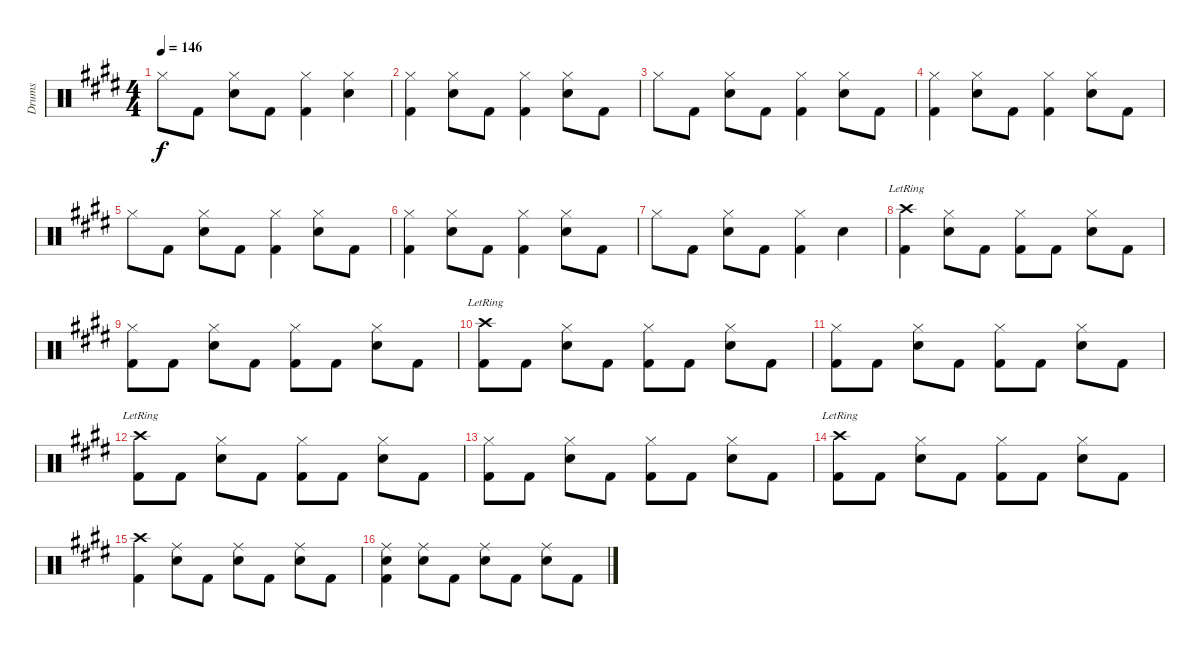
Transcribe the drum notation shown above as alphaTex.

\track ("Drums" "Drums") {instrument percussion}
\staff {score}
\articulation defaults
\ts (4 4)
\tempo 146
\clef neutral
\ks e "Hi-Hat (closed)".8{dy f} "Kick (hit) 2".8
("Snare (hit) 2" "Hi-Hat (closed)").8 "Kick (hit) 2".8 ("Kick (hit) 2" "Hi-Hat (closed)").4 ("Snare (hit) 2" "Hi-Hat (closed)").4 |
("Kick (hit) 2" "Hi-Hat (closed)").4 ("Snare (hit) 2" "Hi-Hat (closed)").8 "Kick (hit) 2".8 ("Kick (hit) 2" "Hi-Hat (closed)").4 ("Snare (hit) 2" "Hi-Hat (closed)").8 "Kick (hit) 2".8 |
"Hi-Hat (closed)".8 "Kick (hit) 2".8 ("Snare (hit) 2" "Hi-Hat (closed)").8 "Kick (hit) 2".8 ("Kick (hit) 2" "Hi-Hat (closed)").4 ("Snare (hit) 2" "Hi-Hat (closed)").8 "Kick (hit) 2".8 |
("Kick (hit) 2" "Hi-Hat (closed)").4 ("Snare (hit) 2" "Hi-Hat (closed)").8 "Kick (hit) 2".8 ("Kick (hit) 2" "Hi-Hat (closed)").4 ("Snare (hit) 2" "Hi-Hat (closed)").8 "Kick (hit) 2".8 |
"Hi-Hat (closed)".8 "Kick (hit) 2".8 ("Snare (hit) 2" "Hi-Hat (closed)").8 "Kick (hit) 2".8 ("Kick (hit) 2" "Hi-Hat (closed)").4 ("Snare (hit) 2" "Hi-Hat (closed)").8 "Kick (hit) 2".8 |
("Kick (hit) 2" "Hi-Hat (closed)").4 ("Snare (hit) 2" "Hi-Hat (closed)").8 "Kick (hit) 2".8 ("Kick (hit) 2" "Hi-Hat (closed)").4 ("Snare (hit) 2" "Hi-Hat (closed)").8 "Kick (hit) 2".8 |
"Hi-Hat (closed)".8 "Kick (hit) 2".8 ("Snare (hit) 2" "Hi-Hat (closed)").8 "Kick (hit) 2".8 ("Kick (hit) 2" "Hi-Hat (closed)").4 "Snare (hit) 2".4 |
("Kick (hit) 2" "Crash high (hit)"{lr}).4 ("Snare (hit) 2" "Hi-Hat (closed)").8 "Kick (hit) 2".8 ("Kick (hit) 2" "Hi-Hat (closed)").8 "Kick (hit) 2".8 ("Snare (hit) 2" "Hi-Hat (closed)").8 "Kick (hit) 2".8 |
("Kick (hit) 2" "Hi-Hat (closed)").8 "Kick (hit) 2".8 ("Snare (hit) 2" "Hi-Hat (closed)").8 "Kick (hit) 2".8 ("Kick (hit) 2" "Hi-Hat (closed)").8 "Kick (hit) 2".8 ("Snare (hit) 2" "Hi-Hat (closed)").8 "Kick (hit) 2".8 |
("Kick (hit) 2" "Crash high (hit)"{lr}).8 "Kick (hit) 2".8 ("Snare (hit) 2" "Hi-Hat (closed)").8 "Kick (hit) 2".8 ("Kick (hit) 2" "Hi-Hat (closed)").8 "Kick (hit) 2".8 ("Snare (hit) 2" "Hi-Hat (closed)").8 "Kick (hit) 2".8 |
("Kick (hit) 2" "Hi-Hat (closed)").8 "Kick (hit) 2".8 ("Snare (hit) 2" "Hi-Hat (closed)").8 "Kick (hit) 2".8 ("Kick (hit) 2" "Hi-Hat (closed)").8 "Kick (hit) 2".8 ("Snare (hit) 2" "Hi-Hat (closed)").8 "Kick (hit) 2".8 |
("Kick (hit) 2" "Crash high (hit)"{lr}).8 "Kick (hit) 2".8 ("Snare (hit) 2" "Hi-Hat (closed)").8 "Kick (hit) 2".8 ("Kick (hit) 2" "Hi-Hat (closed)").8 "Kick (hit) 2".8 ("Snare (hit) 2" "Hi-Hat (closed)").8 "Kick (hit) 2".8 |
("Kick (hit) 2" "Hi-Hat (closed)").8 "Kick (hit) 2".8 ("Snare (hit) 2" "Hi-Hat (closed)").8 "Kick (hit) 2".8 ("Kick (hit) 2" "Hi-Hat (closed)").8 "Kick (hit) 2".8 ("Snare (hit) 2" "Hi-Hat (closed)").8 "Kick (hit) 2".8 |
("Kick (hit) 2" "Crash high (hit)"{lr}).8 "Kick (hit) 2".8 ("Snare (hit) 2" "Hi-Hat (closed)").8 "Kick (hit) 2".8 ("Kick (hit) 2" "Hi-Hat (closed)").8 "Kick (hit) 2".8 ("Snare (hit) 2" "Hi-Hat (closed)").8 "Kick (hit) 2".8 |
("Kick (hit) 2" "Crash high (hit)").4 ("Snare (hit) 2" "Ride (middle)").8 "Kick (hit) 2".8 ("Snare (hit) 2" "Ride (middle)").8 "Kick (hit) 2".8 ("Snare (hit) 2" "Ride (middle)").8 "Kick (hit) 2".8 |
("Kick (hit) 2" "Snare (hit) 2" "Ride (middle)").4 ("Snare (hit) 2" "Ride (middle)").8 "Kick (hit) 2".8 ("Snare (hit) 2" "Ride (middle)").8 "Kick (hit) 2".8 ("Snare (hit) 2" "Ride (middle)").8 "Kick (hit) 2".8
